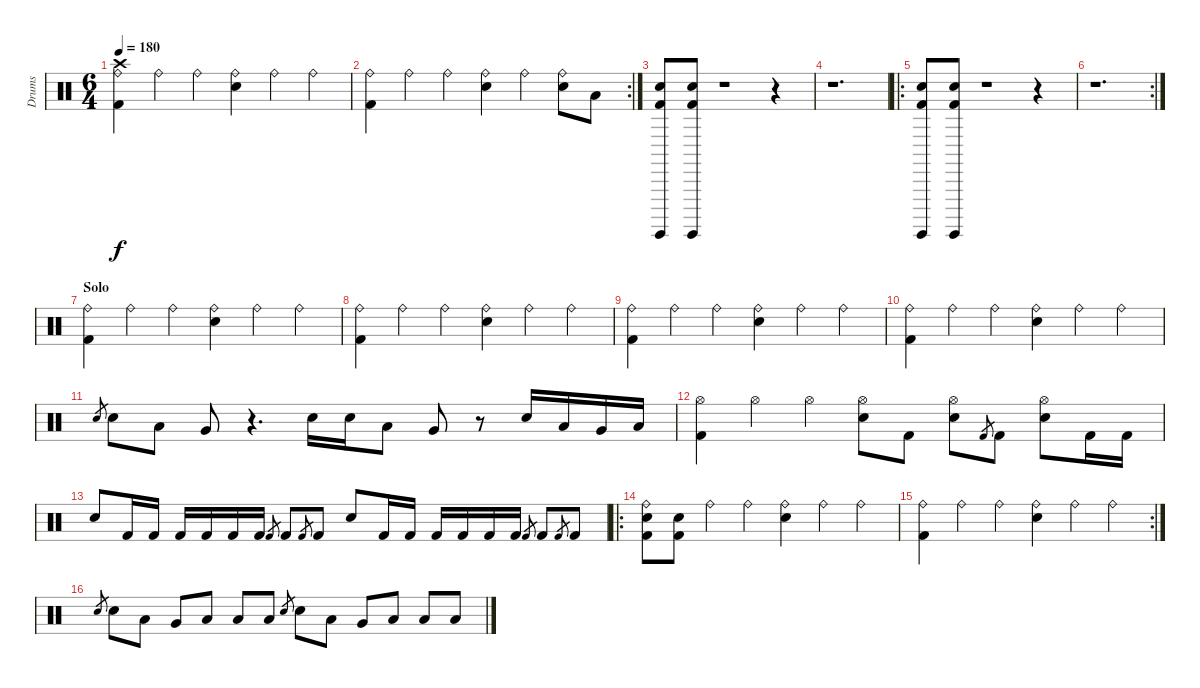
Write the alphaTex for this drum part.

\track ("Drums" "Drums") {instrument percussion}
\staff {score}
\articulation defaults
\ts (6 4)
\tempo 180
\clef neutral
\ks c
("Crash high (hit)" "Ride (bell)" "Kick (hit) 2").4{dy f} "Ride (bell)".4 "Ride (bell)".4 ("Ride (bell)" "Electric Snare (hit)").4 "Ride (bell)".4 "Ride (bell)".4 |
\rc 2
("Ride (bell)" "Kick (hit) 2").4 "Ride (bell)".4 "Ride (bell)".4 ("Ride (bell)" "Electric Snare (hit)").4 "Ride (bell)".4 ("Ride (bell)" "Electric Snare (hit)").8 "Low Tom (hit)".8 |
("Surdo (hit)" "Electric Snare (hit)" "Kick (hit) 2").8 ("Surdo (hit)" "Electric Snare (hit)" "Kick (hit) 2").8 r.1 r.4 |
r.1{d} |
\ro
("Surdo (hit)" "Electric Snare (hit)" "Kick (hit) 2").8 ("Surdo (hit)" "Electric Snare (hit)" "Kick (hit) 2").8 r.1 r.4 |
\rc 2
r.1{d} |
\section ("" "Solo")
("Ride (bell)" "Kick (hit) 2").4 "Ride (bell)".4 "Ride (bell)".4 ("Ride (bell)" "Electric Snare (hit)").4 "Ride (bell)".4 "Ride (bell)".4 |
("Ride (bell)" "Kick (hit) 2").4 "Ride (bell)".4 "Ride (bell)".4 ("Ride (bell)" "Electric Snare (hit)").4 "Ride (bell)".4 "Ride (bell)".4 |
("Ride (bell)" "Kick (hit) 2").4 "Ride (bell)".4 "Ride (bell)".4 ("Ride (bell)" "Electric Snare (hit)").4 "Ride (bell)".4 "Ride (bell)".4 |
("Ride (bell)" "Kick (hit) 2").4 "Ride (bell)".4 "Ride (bell)".4 ("Ride (bell)" "Electric Snare (hit)").4 "Ride (bell)".4 "Ride (bell)".4 |
"Electric Snare (hit)".8{gr} "Electric Snare (hit)".8 "Low Tom (hit)".8 "Very Low Tom (hit)".8 r.4{d} "Electric Snare (hit)".16 "Electric Snare (hit)".16 "Low Tom (hit)".8 "Very Low Tom (hit)".8 r.8 "Electric Snare (hit)".16 "Low Tom (hit)".16 "Very Low Tom (hit)".16 "Low Floor Tom (hit)".16 |
("Hi-Hat (open)" "Kick (hit) 2").4 "Hi-Hat (open)".4 "Hi-Hat (open)".4 ("Hi-Hat (open)" "Electric Snare (hit)").8 "Kick (hit) 2".8 ("Hi-Hat (open)" "Electric Snare (hit)").8 "Kick (hit) 2".8{gr} "Kick (hit) 2".8 ("Hi-Hat (open)" "Electric Snare (hit)").8 "Kick (hit) 2".16 "Kick (hit) 2".16 |
"Electric Snare (hit)".8 "Kick (hit) 2".16 "Kick (hit) 2".16 "Kick (hit) 2".16 "Kick (hit) 2".16 "Kick (hit) 2".16 "Kick (hit) 2".16 "Kick (hit) 2".8{gr} "Kick (hit) 2".8 "Kick (hit) 2".8{gr} "Kick (hit) 2".8 "Electric Snare (hit)".8 "Kick (hit) 2".16 "Kick (hit) 2".16 "Kick (hit) 2".16 "Kick (hit) 2".16 "Kick (hit) 2".16 "Kick (hit) 2".16 "Kick (hit) 2".8{gr} "Kick (hit) 2".8 "Kick (hit) 2".8{gr} "Kick (hit) 2".8 |
\ro
("Electric Snare (hit)" "Ride (bell)" "Kick (hit) 2").8 ("Electric Snare (hit)" "Kick (hit) 2").8 "Ride (bell)".4 "Ride (bell)".4 ("Ride (bell)" "Electric Snare (hit)").4 "Ride (bell)".4 "Ride (bell)".4 |
\rc 2
("Ride (bell)" "Kick (hit) 2").4 "Ride (bell)".4 "Ride (bell)".4 ("Ride (bell)" "Electric Snare (hit)").4 "Ride (bell)".4 "Ride (bell)".4 |
"Electric Snare (hit)".8{gr} "Electric Snare (hit)".8 "Low Tom (hit)".8 "Very Low Tom (hit)".8 "Low Floor Tom (hit)".8 "Low Floor Tom (hit)".8 "Low Floor Tom (hit)".8 "Electric Snare (hit)".8{gr} "Electric Snare (hit)".8 "Low Tom (hit)".8 "Very Low Tom (hit)".8 "Low Floor Tom (hit)".8 "Low Floor Tom (hit)".8 "Low Floor Tom (hit)".8
